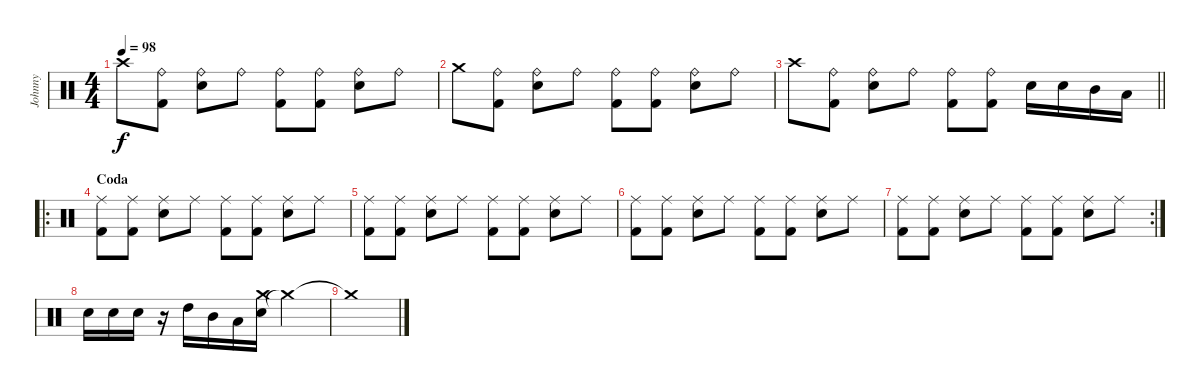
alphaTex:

\track ("Johnny" "Johnny") {instrument percussion}
\staff {score}
\articulation defaults
\ts (4 4)
\tempo 98
\clef neutral
\ks c "Crash high (hit)".8{dy f}
("Kick (hit) 2" "Ride (bell)").8 ("Electric Snare (hit)" "Ride (bell)").8 "Ride (bell)".8 ("Kick (hit) 2" "Ride (bell)").8 ("Kick (hit) 2" "Ride (bell)").8 ("Electric Snare (hit)" "Ride (bell)").8 "Ride (bell)".8 |
"Crash medium (hit)".8 ("Kick (hit) 2" "Ride (bell)").8 ("Electric Snare (hit)" "Ride (bell)").8 "Ride (bell)".8 ("Kick (hit) 2" "Ride (bell)").8 ("Kick (hit) 2" "Ride (bell)").8 ("Electric Snare (hit)" "Ride (bell)").8 "Ride (bell)".8 |
\barLineRight lightlight "Crash high (hit)".8
("Kick (hit) 2" "Ride (bell)").8 ("Electric Snare (hit)" "Ride (bell)").8 "Ride (bell)".8 ("Kick (hit) 2" "Ride (bell)").8 ("Kick (hit) 2" "Ride (bell)").8 "Electric Snare (hit)".16 "Electric Snare (hit)".16 "Mid Tom (hit)".16 "Low Tom (hit)".16 |
\ro
\section ("" "Coda")
("Kick (hit) 2" "Ride (middle)").8 ("Kick (hit) 2" "Ride (middle)").8 ("Electric Snare (hit)" "Ride (middle)").8 "Ride (middle)".8 ("Kick (hit) 2" "Ride (middle)").8 ("Kick (hit) 2" "Ride (middle)").8 ("Electric Snare (hit)" "Ride (middle)").8 "Ride (middle)".8 |
("Kick (hit) 2" "Ride (middle)").8 ("Kick (hit) 2" "Ride (middle)").8 ("Electric Snare (hit)" "Ride (middle)").8 "Ride (middle)".8 ("Kick (hit) 2" "Ride (middle)").8 ("Kick (hit) 2" "Ride (middle)").8 ("Electric Snare (hit)" "Ride (middle)").8 "Ride (middle)".8 |
("Kick (hit) 2" "Ride (middle)").8 ("Kick (hit) 2" "Ride (middle)").8 ("Electric Snare (hit)" "Ride (middle)").8 "Ride (middle)".8 ("Kick (hit) 2" "Ride (middle)").8 ("Kick (hit) 2" "Ride (middle)").8 ("Electric Snare (hit)" "Ride (middle)").8 "Ride (middle)".8 |
\rc 2
("Kick (hit) 2" "Ride (middle)").8 ("Kick (hit) 2" "Ride (middle)").8 ("Electric Snare (hit)" "Ride (middle)").8 "Ride (middle)".8 ("Kick (hit) 2" "Ride (middle)").8 ("Kick (hit) 2" "Ride (middle)").8 ("Electric Snare (hit)" "Ride (middle)").8 "Ride (middle)".8 |
"Electric Snare (hit)".16 "Electric Snare (hit)".16 "Electric Snare (hit)".16 r.16 "High Tom (hit)".16 "Mid Tom (hit)".16 "Low Tom (hit)".16 ("Electric Snare (hit)" "Crash medium (hit)").16 "Crash medium (hit)"{t}.2 |
"Crash medium (hit)"{t}.1
